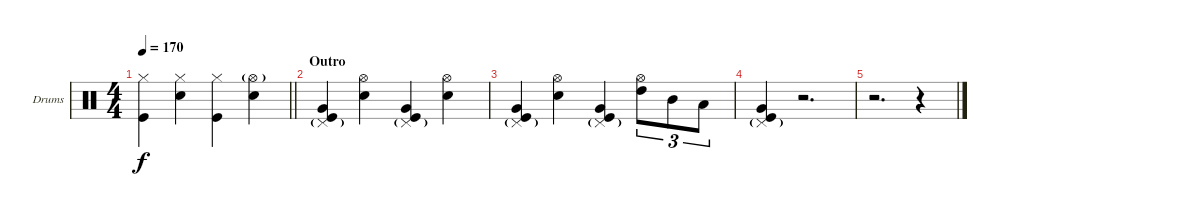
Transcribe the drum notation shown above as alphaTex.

\bracketExtendMode groupsimilarinstruments
\firstSystemTrackNameOrientation horizontal
\otherSystemsTrackNameOrientation horizontal
\track ("Dave Grohl [Drumms]" "Drums") {instrument percussion}
\staff {score}
\articulation defaults
\ts (4 4)
\tempo 170
\clef neutral
\barLineRight lightlight
\ks c
("Hi-Hat (closed)" "Kick (hit)").4{dy f} ("Hi-Hat (closed)" "Snare (hit) 2").4 ("Hi-Hat (closed)" "Kick (hit)").4 ("Hi-Hat (open)"{g} "Snare (hit) 2").4 |
\section ("" "Outro")
("Pedal Hi-Hat (hit)"{g} "Very Low Tom (hit)" "Kick (hit)").4 ("Hi-Hat (open)" "Snare (hit) 2").4 ("Pedal Hi-Hat (hit)"{g} "Very Low Tom (hit)" "Kick (hit)").4 ("Hi-Hat (open)" "Snare (hit) 2").4 |
("Pedal Hi-Hat (hit)"{g} "Very Low Tom (hit)" "Kick (hit)").4 ("Hi-Hat (open)" "Snare (hit) 2").4 ("Pedal Hi-Hat (hit)"{g} "Very Low Tom (hit)" "Kick (hit)").4 ("Hi-Hat (open)" "High Tom (hit)").8{tu (3 2)} "Mid Tom (hit)".8{tu (3 2)} "Low Tom (hit)".8{tu (3 2)} |
("Pedal Hi-Hat (hit)"{g} "Very Low Tom (hit)" "Kick (hit)").4 r.2{d} |
r.2{d} r.4
